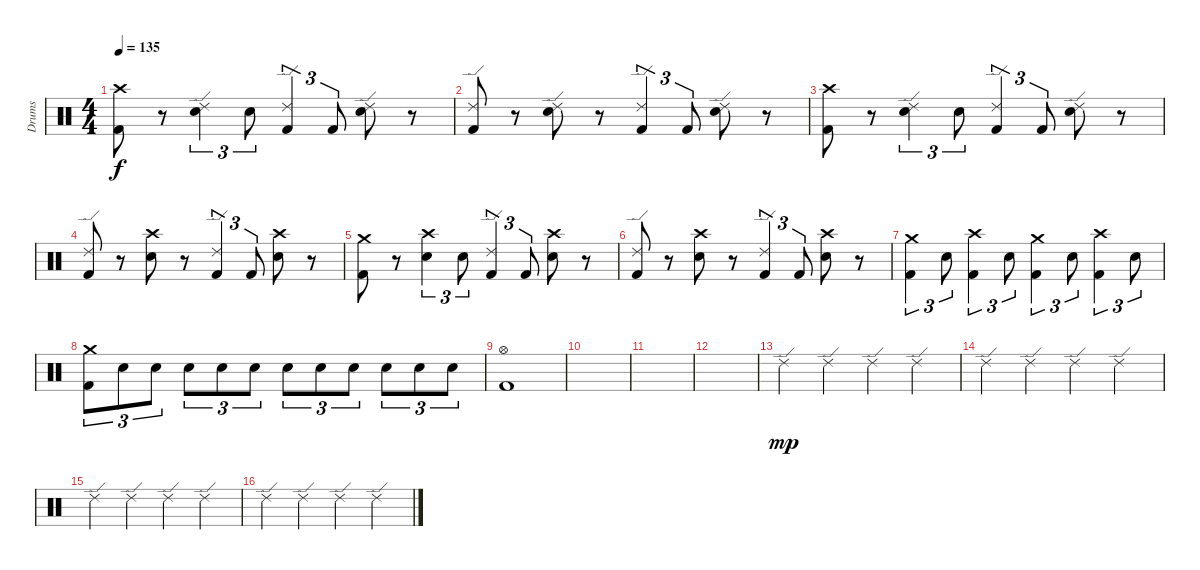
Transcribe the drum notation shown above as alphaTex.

\track ("Drums" "Drums") {instrument percussion}
\staff {score}
\articulation defaults
\ts (4 4)
\tempo 135
\clef neutral
\ks c
("Crash high (hit)" "Kick (hit) 2").8{dy f} r.8 ("Ride (edge) 2" "Electric Snare (hit)").4{tu (3 2)} "Electric Snare (hit)".8{tu (3 2)} ("Ride (edge) 2" "Kick (hit) 2").4{tu (3 2)} "Kick (hit) 2".8{tu (3 2)} ("Ride (edge) 2" "Electric Snare (hit)").8 r.8 |
("Ride (edge) 2" "Kick (hit) 2").8 r.8 ("Ride (edge) 2" "Electric Snare (hit)").8 r.8 ("Ride (edge) 2" "Kick (hit) 2").4{tu (3 2)} "Kick (hit) 2".8{tu (3 2)} ("Ride (edge) 2" "Electric Snare (hit)").8 r.8 |
("Crash high (hit)" "Kick (hit) 2").8 r.8 ("Ride (edge) 2" "Electric Snare (hit)").4{tu (3 2)} "Electric Snare (hit)".8{tu (3 2)} ("Ride (edge) 2" "Kick (hit) 2").4{tu (3 2)} "Kick (hit) 2".8{tu (3 2)} ("Ride (edge) 2" "Electric Snare (hit)").8 r.8 |
("Ride (edge) 2" "Kick (hit) 2").8 r.8 ("Crash high (hit)" "Electric Snare (hit)").8 r.8 ("Ride (edge) 2" "Kick (hit) 2").4{tu (3 2)} "Kick (hit) 2".8{tu (3 2)} ("Crash high (hit)" "Electric Snare (hit)").8 r.8 |
("Crash medium (hit)" "Kick (hit) 2").8 r.8 ("Crash high (hit)" "Electric Snare (hit)").4{tu (3 2)} "Electric Snare (hit)".8{tu (3 2)} ("Ride (edge) 2" "Kick (hit) 2").4{tu (3 2)} "Kick (hit) 2".8{tu (3 2)} ("Crash high (hit)" "Electric Snare (hit)").8 r.8 |
("Ride (edge) 2" "Kick (hit) 2").8 r.8 ("Crash high (hit)" "Electric Snare (hit)").8 r.8 ("Ride (edge) 2" "Kick (hit) 2").4{tu (3 2)} "Kick (hit) 2".8{tu (3 2)} ("Crash high (hit)" "Electric Snare (hit)").8 r.8 |
("Crash medium (hit)" "Kick (hit) 2").4{tu (3 2)} "Electric Snare (hit)".8{tu (3 2)} ("Crash high (hit)" "Kick (hit) 2").4{tu (3 2)} "Electric Snare (hit)".8{tu (3 2)} ("Crash medium (hit)" "Kick (hit) 2").4{tu (3 2)} "Electric Snare (hit)".8{tu (3 2)} ("Crash high (hit)" "Kick (hit) 2").4{tu (3 2)} "Electric Snare (hit)".8{tu (3 2)} |
("Crash medium (hit)" "Kick (hit) 2").8{tu (3 2)} "Electric Snare (hit)".8{tu (3 2)} "Electric Snare (hit)".8{tu (3 2)} "Electric Snare (hit)".8{tu (3 2)} "Electric Snare (hit)".8{tu (3 2)} "Electric Snare (hit)".8{tu (3 2)} "Electric Snare (hit)".8{tu (3 2)} "Electric Snare (hit)".8{tu (3 2)} "Electric Snare (hit)".8{tu (3 2)} "Electric Snare (hit)".8{tu (3 2)} "Electric Snare (hit)".8{tu (3 2)} "Electric Snare (hit)".8{tu (3 2)} |
("Hi-Hat (open)" "Kick (hit) 2").1 |
|
|
|
"Ride (edge) 2".4{dy mp} "Ride (edge) 2".4 "Ride (edge) 2".4 "Ride (edge) 2".4 |
"Ride (edge) 2".4 "Ride (edge) 2".4 "Ride (edge) 2".4 "Ride (edge) 2".4 |
"Ride (edge) 2".4 "Ride (edge) 2".4 "Ride (edge) 2".4 "Ride (edge) 2".4 |
"Ride (edge) 2".4 "Ride (edge) 2".4 "Ride (edge) 2".4 "Ride (edge) 2".4
